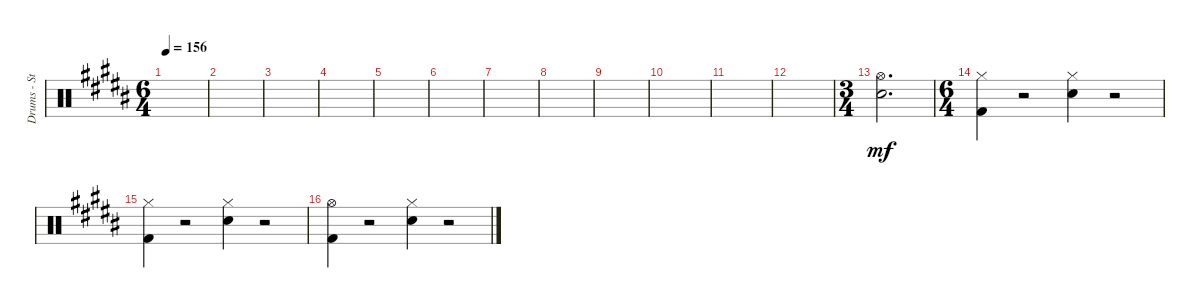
\track ("Drums - Steve Judd" "Drums - St") {instrument percussion}
\staff {score}
\articulation defaults
\ts (6 4)
\tempo 156
\clef neutral
\ks b
|
|
|
|
|
|
|
|
|
|
|
|
\ts (3 4)
("Hi-Hat (open)" "Electric Snare (hit)").2{d dy mf} |
\ts (6 4)
("Hi-Hat (closed)" "Kick (hit) 2").4 r.2 ("Hi-Hat (closed)" "Electric Snare (hit)").4 r.2 |
("Hi-Hat (closed)" "Kick (hit) 2").4 r.2 ("Hi-Hat (closed)" "Electric Snare (hit)").4 r.2 |
("Hi-Hat (open)" "Kick (hit) 2").4 r.2 ("Hi-Hat (closed)" "Electric Snare (hit)").4 r.2
